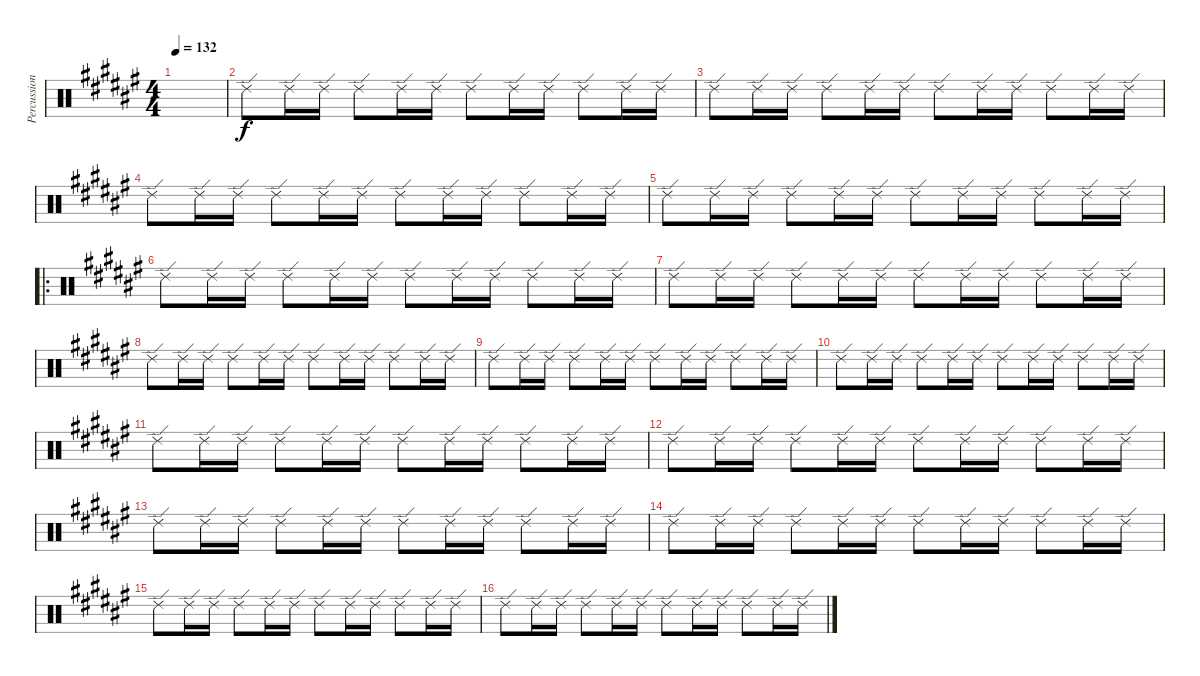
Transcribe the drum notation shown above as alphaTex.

\track ("Percussion" "Percussion") {instrument percussion}
\staff {score}
\articulation defaults
\ts (4 4)
\tempo 132
\clef neutral
\ks f#
|
"Ride (edge) 2".8 "Ride (edge) 2".16 "Ride (edge) 2".16 "Ride (edge) 2".8 "Ride (edge) 2".16 "Ride (edge) 2".16 "Ride (edge) 2".8 "Ride (edge) 2".16 "Ride (edge) 2".16 "Ride (edge) 2".8 "Ride (edge) 2".16 "Ride (edge) 2".16 |
"Ride (edge) 2".8 "Ride (edge) 2".16 "Ride (edge) 2".16 "Ride (edge) 2".8 "Ride (edge) 2".16 "Ride (edge) 2".16 "Ride (edge) 2".8 "Ride (edge) 2".16 "Ride (edge) 2".16 "Ride (edge) 2".8 "Ride (edge) 2".16 "Ride (edge) 2".16 |
"Ride (edge) 2".8 "Ride (edge) 2".16 "Ride (edge) 2".16 "Ride (edge) 2".8 "Ride (edge) 2".16 "Ride (edge) 2".16 "Ride (edge) 2".8 "Ride (edge) 2".16 "Ride (edge) 2".16 "Ride (edge) 2".8 "Ride (edge) 2".16 "Ride (edge) 2".16 |
"Ride (edge) 2".8 "Ride (edge) 2".16 "Ride (edge) 2".16 "Ride (edge) 2".8 "Ride (edge) 2".16 "Ride (edge) 2".16 "Ride (edge) 2".8 "Ride (edge) 2".16 "Ride (edge) 2".16 "Ride (edge) 2".8 "Ride (edge) 2".16 "Ride (edge) 2".16 |
\ro "Ride (edge) 2".8 "Ride (edge) 2".16 "Ride (edge) 2".16 "Ride (edge) 2".8 "Ride (edge) 2".16 "Ride (edge) 2".16 "Ride (edge) 2".8 "Ride (edge) 2".16 "Ride (edge) 2".16 "Ride (edge) 2".8 "Ride (edge) 2".16 "Ride (edge) 2".16
|
"Ride (edge) 2".8 "Ride (edge) 2".16 "Ride (edge) 2".16 "Ride (edge) 2".8 "Ride (edge) 2".16 "Ride (edge) 2".16 "Ride (edge) 2".8 "Ride (edge) 2".16 "Ride (edge) 2".16 "Ride (edge) 2".8 "Ride (edge) 2".16 "Ride (edge) 2".16 |
"Ride (edge) 2".8 "Ride (edge) 2".16 "Ride (edge) 2".16 "Ride (edge) 2".8 "Ride (edge) 2".16 "Ride (edge) 2".16 "Ride (edge) 2".8 "Ride (edge) 2".16 "Ride (edge) 2".16 "Ride (edge) 2".8 "Ride (edge) 2".16 "Ride (edge) 2".16 |
"Ride (edge) 2".8 "Ride (edge) 2".16 "Ride (edge) 2".16 "Ride (edge) 2".8 "Ride (edge) 2".16 "Ride (edge) 2".16 "Ride (edge) 2".8 "Ride (edge) 2".16 "Ride (edge) 2".16 "Ride (edge) 2".8 "Ride (edge) 2".16 "Ride (edge) 2".16 |
"Ride (edge) 2".8 "Ride (edge) 2".16 "Ride (edge) 2".16 "Ride (edge) 2".8 "Ride (edge) 2".16 "Ride (edge) 2".16 "Ride (edge) 2".8 "Ride (edge) 2".16 "Ride (edge) 2".16 "Ride (edge) 2".8 "Ride (edge) 2".16 "Ride (edge) 2".16 |
"Ride (edge) 2".8 "Ride (edge) 2".16 "Ride (edge) 2".16 "Ride (edge) 2".8 "Ride (edge) 2".16 "Ride (edge) 2".16 "Ride (edge) 2".8 "Ride (edge) 2".16 "Ride (edge) 2".16 "Ride (edge) 2".8 "Ride (edge) 2".16 "Ride (edge) 2".16 |
"Ride (edge) 2".8 "Ride (edge) 2".16 "Ride (edge) 2".16 "Ride (edge) 2".8 "Ride (edge) 2".16 "Ride (edge) 2".16 "Ride (edge) 2".8 "Ride (edge) 2".16 "Ride (edge) 2".16 "Ride (edge) 2".8 "Ride (edge) 2".16 "Ride (edge) 2".16 |
"Ride (edge) 2".8 "Ride (edge) 2".16 "Ride (edge) 2".16 "Ride (edge) 2".8 "Ride (edge) 2".16 "Ride (edge) 2".16 "Ride (edge) 2".8 "Ride (edge) 2".16 "Ride (edge) 2".16 "Ride (edge) 2".8 "Ride (edge) 2".16 "Ride (edge) 2".16 |
"Ride (edge) 2".8 "Ride (edge) 2".16 "Ride (edge) 2".16 "Ride (edge) 2".8 "Ride (edge) 2".16 "Ride (edge) 2".16 "Ride (edge) 2".8 "Ride (edge) 2".16 "Ride (edge) 2".16 "Ride (edge) 2".8 "Ride (edge) 2".16 "Ride (edge) 2".16 |
"Ride (edge) 2".8 "Ride (edge) 2".16 "Ride (edge) 2".16 "Ride (edge) 2".8 "Ride (edge) 2".16 "Ride (edge) 2".16 "Ride (edge) 2".8 "Ride (edge) 2".16 "Ride (edge) 2".16 "Ride (edge) 2".8 "Ride (edge) 2".16 "Ride (edge) 2".16 |
"Ride (edge) 2".8 "Ride (edge) 2".16 "Ride (edge) 2".16 "Ride (edge) 2".8 "Ride (edge) 2".16 "Ride (edge) 2".16 "Ride (edge) 2".8 "Ride (edge) 2".16 "Ride (edge) 2".16 "Ride (edge) 2".8 "Ride (edge) 2".16 "Ride (edge) 2".16
